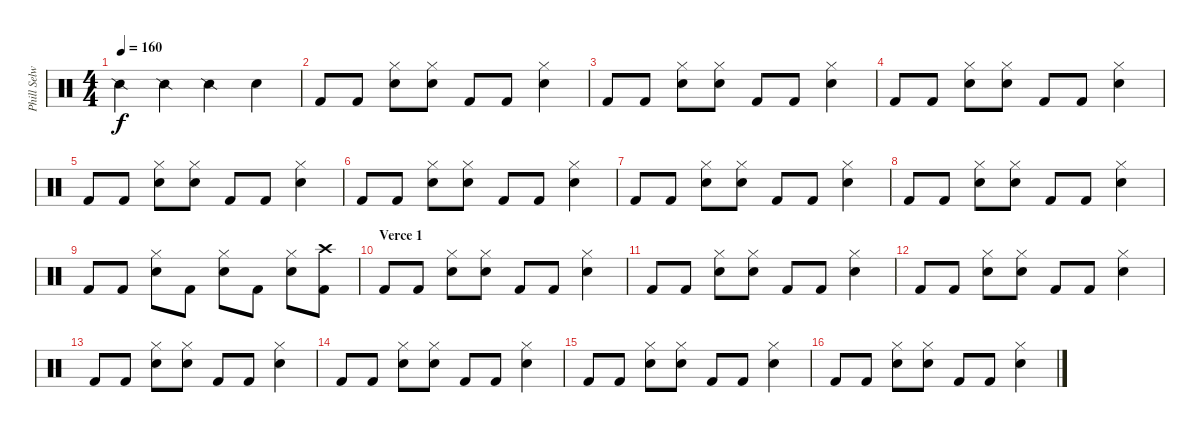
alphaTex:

\track ("Phill Selway" "Phill Selw") {instrument percussion}
\staff {score}
\articulation defaults
\ts (4 4)
\tempo 160
\clef neutral
\ks c "Snare (side stick) 2".4{dy f} "Snare (side stick) 2".4 "Snare (side stick) 2".4 "Snare (hit) 2".4
|
"Kick (hit) 2".8 "Kick (hit) 2".8 ("Snare (hit) 2" "Hi-Hat (closed)").8 ("Snare (hit) 2" "Hi-Hat (closed)").8 "Kick (hit) 2".8 "Kick (hit) 2".8 ("Snare (hit) 2" "Hi-Hat (closed)").4 |
"Kick (hit) 2".8 "Kick (hit) 2".8 ("Snare (hit) 2" "Hi-Hat (closed)").8 ("Snare (hit) 2" "Hi-Hat (closed)").8 "Kick (hit) 2".8 "Kick (hit) 2".8 ("Snare (hit) 2" "Hi-Hat (closed)").4 |
"Kick (hit) 2".8 "Kick (hit) 2".8 ("Snare (hit) 2" "Hi-Hat (closed)").8 ("Snare (hit) 2" "Hi-Hat (closed)").8 "Kick (hit) 2".8 "Kick (hit) 2".8 ("Snare (hit) 2" "Hi-Hat (closed)").4 |
"Kick (hit) 2".8 "Kick (hit) 2".8 ("Snare (hit) 2" "Hi-Hat (closed)").8 ("Snare (hit) 2" "Hi-Hat (closed)").8 "Kick (hit) 2".8 "Kick (hit) 2".8 ("Snare (hit) 2" "Hi-Hat (closed)").4 |
"Kick (hit) 2".8 "Kick (hit) 2".8 ("Snare (hit) 2" "Hi-Hat (closed)").8 ("Snare (hit) 2" "Hi-Hat (closed)").8 "Kick (hit) 2".8 "Kick (hit) 2".8 ("Snare (hit) 2" "Hi-Hat (closed)").4 |
"Kick (hit) 2".8 "Kick (hit) 2".8 ("Snare (hit) 2" "Hi-Hat (closed)").8 ("Snare (hit) 2" "Hi-Hat (closed)").8 "Kick (hit) 2".8 "Kick (hit) 2".8 ("Snare (hit) 2" "Hi-Hat (closed)").4 |
"Kick (hit) 2".8 "Kick (hit) 2".8 ("Snare (hit) 2" "Hi-Hat (closed)").8 ("Snare (hit) 2" "Hi-Hat (closed)").8 "Kick (hit) 2".8 "Kick (hit) 2".8 ("Snare (hit) 2" "Hi-Hat (closed)").4 |
"Kick (hit) 2".8 "Kick (hit) 2".8 ("Snare (hit) 2" "Hi-Hat (closed)").8 "Kick (hit) 2".8 ("Snare (hit) 2" "Hi-Hat (closed)").8 "Kick (hit) 2".8 ("Snare (hit) 2" "Hi-Hat (closed)").8 ("Kick (hit) 2" "Crash high (hit)").8 |
\section ("" "Verce 1")
"Kick (hit) 2".8 "Kick (hit) 2".8 ("Snare (hit) 2" "Hi-Hat (closed)").8 ("Snare (hit) 2" "Hi-Hat (closed)").8 "Kick (hit) 2".8 "Kick (hit) 2".8 ("Snare (hit) 2" "Hi-Hat (closed)").4 |
"Kick (hit) 2".8 "Kick (hit) 2".8 ("Snare (hit) 2" "Hi-Hat (closed)").8 ("Snare (hit) 2" "Hi-Hat (closed)").8 "Kick (hit) 2".8 "Kick (hit) 2".8 ("Snare (hit) 2" "Hi-Hat (closed)").4 |
"Kick (hit) 2".8 "Kick (hit) 2".8 ("Snare (hit) 2" "Hi-Hat (closed)").8 ("Snare (hit) 2" "Hi-Hat (closed)").8 "Kick (hit) 2".8 "Kick (hit) 2".8 ("Snare (hit) 2" "Hi-Hat (closed)").4 |
"Kick (hit) 2".8 "Kick (hit) 2".8 ("Snare (hit) 2" "Hi-Hat (closed)").8 ("Snare (hit) 2" "Hi-Hat (closed)").8 "Kick (hit) 2".8 "Kick (hit) 2".8 ("Snare (hit) 2" "Hi-Hat (closed)").4 |
"Kick (hit) 2".8 "Kick (hit) 2".8 ("Snare (hit) 2" "Hi-Hat (closed)").8 ("Snare (hit) 2" "Hi-Hat (closed)").8 "Kick (hit) 2".8 "Kick (hit) 2".8 ("Snare (hit) 2" "Hi-Hat (closed)").4 |
"Kick (hit) 2".8 "Kick (hit) 2".8 ("Snare (hit) 2" "Hi-Hat (closed)").8 ("Snare (hit) 2" "Hi-Hat (closed)").8 "Kick (hit) 2".8 "Kick (hit) 2".8 ("Snare (hit) 2" "Hi-Hat (closed)").4 |
"Kick (hit) 2".8 "Kick (hit) 2".8 ("Snare (hit) 2" "Hi-Hat (closed)").8 ("Snare (hit) 2" "Hi-Hat (closed)").8 "Kick (hit) 2".8 "Kick (hit) 2".8 ("Snare (hit) 2" "Hi-Hat (closed)").4
